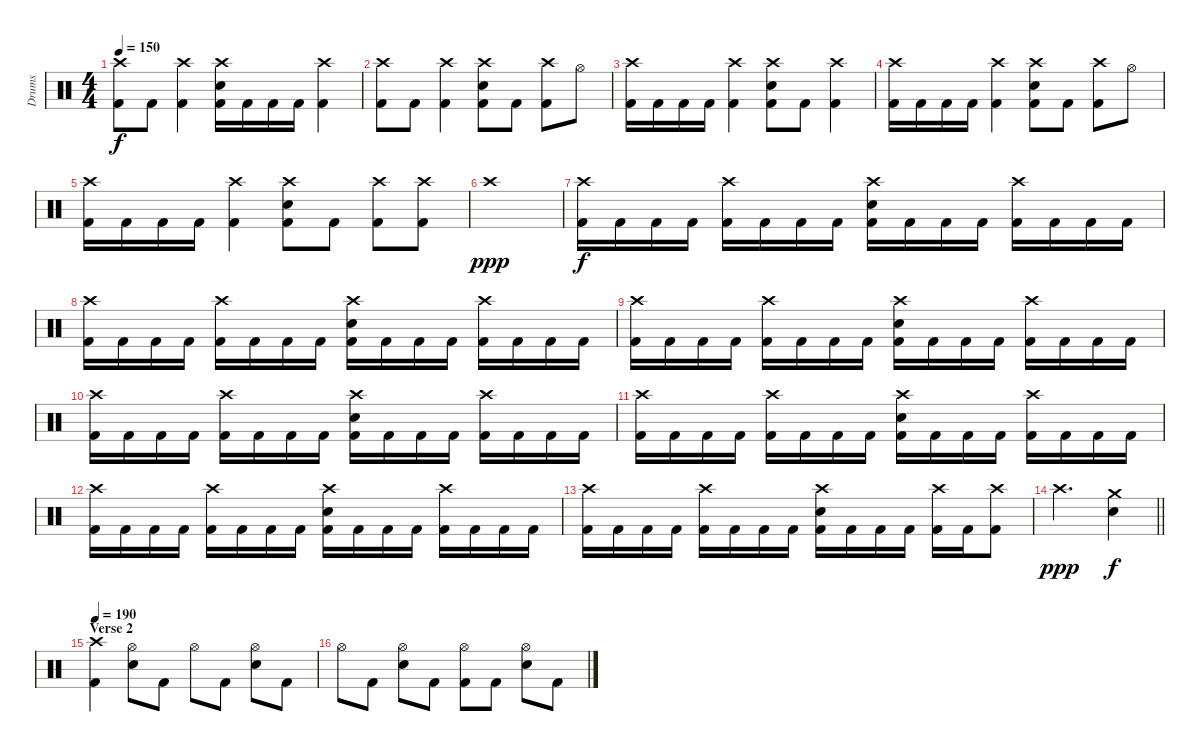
\track ("Drums" "Drums") {instrument percussion}
\staff {score}
\articulation defaults
\ts (4 4)
\tempo 150
\clef neutral
\ks c
("Crash high (hit)" "Kick (hit) 2").8{dy f} "Kick (hit) 2".8 ("Crash high (hit)" "Kick (hit) 2").4 ("Crash high (hit)" "Snare (hit) 2" "Kick (hit) 2").16 "Kick (hit) 2".16 "Kick (hit) 2".16 "Kick (hit) 2".16 ("Crash high (hit)" "Kick (hit) 2").4 |
("Crash high (hit)" "Kick (hit) 2").8 "Kick (hit) 2".8 ("Crash high (hit)" "Kick (hit) 2").4 ("Crash high (hit)" "Snare (hit) 2" "Kick (hit) 2").8 "Kick (hit) 2".8 ("Crash high (hit)" "Kick (hit) 2").8 "Hi-Hat (open)".8 |
("Crash high (hit)" "Kick (hit) 2").16 "Kick (hit) 2".16 "Kick (hit) 2".16 "Kick (hit) 2".16 ("Crash high (hit)" "Kick (hit) 2").4 ("Crash high (hit)" "Snare (hit) 2" "Kick (hit) 2").8 "Kick (hit) 2".8 ("Crash high (hit)" "Kick (hit) 2").4 |
("Crash high (hit)" "Kick (hit) 2").16 "Kick (hit) 2".16 "Kick (hit) 2".16 "Kick (hit) 2".16 ("Crash high (hit)" "Kick (hit) 2").4 ("Crash high (hit)" "Snare (hit) 2" "Kick (hit) 2").8 "Kick (hit) 2".8 ("Crash high (hit)" "Kick (hit) 2").8 "Hi-Hat (open)".8 |
("Crash high (hit)" "Kick (hit) 2").16 "Kick (hit) 2".16 "Kick (hit) 2".16 "Kick (hit) 2".16 ("Crash high (hit)" "Kick (hit) 2").4 ("Crash high (hit)" "Snare (hit) 2" "Kick (hit) 2").8 "Kick (hit) 2".8 ("Crash high (hit)" "Kick (hit) 2").8 ("Crash high (hit)" "Kick (hit) 2").8 |
"Crash high (hit)".1{dy ppp} |
("Crash high (hit)" "Kick (hit) 2").16{dy f} "Kick (hit) 2".16 "Kick (hit) 2".16 "Kick (hit) 2".16 ("Crash high (hit)" "Kick (hit) 2").16 "Kick (hit) 2".16 "Kick (hit) 2".16 "Kick (hit) 2".16 ("Crash high (hit)" "Snare (hit) 2" "Kick (hit) 2").16 "Kick (hit) 2".16 "Kick (hit) 2".16 "Kick (hit) 2".16 ("Crash high (hit)" "Kick (hit) 2").16 "Kick (hit) 2".16 "Kick (hit) 2".16 "Kick (hit) 2".16 |
("Crash high (hit)" "Kick (hit) 2").16 "Kick (hit) 2".16 "Kick (hit) 2".16 "Kick (hit) 2".16 ("Crash high (hit)" "Kick (hit) 2").16 "Kick (hit) 2".16 "Kick (hit) 2".16 "Kick (hit) 2".16 ("Crash high (hit)" "Snare (hit) 2" "Kick (hit) 2").16 "Kick (hit) 2".16 "Kick (hit) 2".16 "Kick (hit) 2".16 ("Crash high (hit)" "Kick (hit) 2").16 "Kick (hit) 2".16 "Kick (hit) 2".16 "Kick (hit) 2".16 |
("Crash high (hit)" "Kick (hit) 2").16 "Kick (hit) 2".16 "Kick (hit) 2".16 "Kick (hit) 2".16 ("Crash high (hit)" "Kick (hit) 2").16 "Kick (hit) 2".16 "Kick (hit) 2".16 "Kick (hit) 2".16 ("Crash high (hit)" "Snare (hit) 2" "Kick (hit) 2").16 "Kick (hit) 2".16 "Kick (hit) 2".16 "Kick (hit) 2".16 ("Crash high (hit)" "Kick (hit) 2").16 "Kick (hit) 2".16 "Kick (hit) 2".16 "Kick (hit) 2".16 |
("Crash high (hit)" "Kick (hit) 2").16 "Kick (hit) 2".16 "Kick (hit) 2".16 "Kick (hit) 2".16 ("Crash high (hit)" "Kick (hit) 2").16 "Kick (hit) 2".16 "Kick (hit) 2".16 "Kick (hit) 2".16 ("Crash high (hit)" "Snare (hit) 2" "Kick (hit) 2").16 "Kick (hit) 2".16 "Kick (hit) 2".16 "Kick (hit) 2".16 ("Crash high (hit)" "Kick (hit) 2").16 "Kick (hit) 2".16 "Kick (hit) 2".16 "Kick (hit) 2".16 |
("Crash high (hit)" "Kick (hit) 2").16 "Kick (hit) 2".16 "Kick (hit) 2".16 "Kick (hit) 2".16 ("Crash high (hit)" "Kick (hit) 2").16 "Kick (hit) 2".16 "Kick (hit) 2".16 "Kick (hit) 2".16 ("Crash high (hit)" "Snare (hit) 2" "Kick (hit) 2").16 "Kick (hit) 2".16 "Kick (hit) 2".16 "Kick (hit) 2".16 ("Crash high (hit)" "Kick (hit) 2").16 "Kick (hit) 2".16 "Kick (hit) 2".16 "Kick (hit) 2".16 |
("Crash high (hit)" "Kick (hit) 2").16 "Kick (hit) 2".16 "Kick (hit) 2".16 "Kick (hit) 2".16 ("Crash high (hit)" "Kick (hit) 2").16 "Kick (hit) 2".16 "Kick (hit) 2".16 "Kick (hit) 2".16 ("Crash high (hit)" "Snare (hit) 2" "Kick (hit) 2").16 "Kick (hit) 2".16 "Kick (hit) 2".16 "Kick (hit) 2".16 ("Crash high (hit)" "Kick (hit) 2").16 "Kick (hit) 2".16 "Kick (hit) 2".16 "Kick (hit) 2".16 |
("Crash high (hit)" "Kick (hit) 2").16 "Kick (hit) 2".16 "Kick (hit) 2".16 "Kick (hit) 2".16 ("Crash high (hit)" "Kick (hit) 2").16 "Kick (hit) 2".16 "Kick (hit) 2".16 "Kick (hit) 2".16 ("Crash high (hit)" "Snare (hit) 2" "Kick (hit) 2").16 "Kick (hit) 2".16 "Kick (hit) 2".16 "Kick (hit) 2".16 ("Crash high (hit)" "Kick (hit) 2").16 "Kick (hit) 2".16 ("Crash high (hit)" "Kick (hit) 2").8 |
\barLineRight lightlight "Crash high (hit)".2{d dy ppp}
("Crash medium (hit)" "Snare (hit) 2").4{dy f} |
\section ("" "Verse 2")
\tempo 190
("Crash high (hit)" "Kick (hit) 2").4 ("Hi-Hat (open)" "Snare (hit) 2").8 "Kick (hit) 2".8 "Hi-Hat (open)".8 "Kick (hit) 2".8 ("Hi-Hat (open)" "Snare (hit) 2").8 "Kick (hit) 2".8 |
"Hi-Hat (open)".8 "Kick (hit) 2".8 ("Hi-Hat (open)" "Snare (hit) 2").8 "Kick (hit) 2".8 ("Hi-Hat (open)" "Kick (hit) 2").8 "Kick (hit) 2".8 ("Hi-Hat (open)" "Snare (hit) 2").8 "Kick (hit) 2".8
